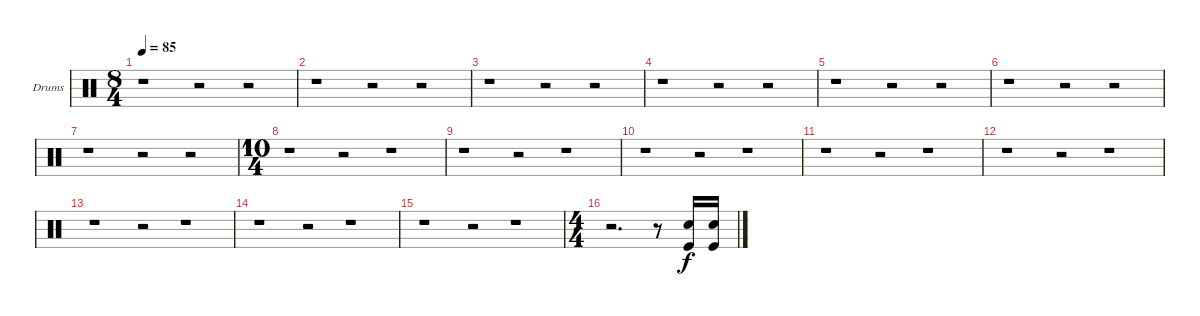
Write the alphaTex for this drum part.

\bracketExtendMode groupsimilarinstruments
\firstSystemTrackNameOrientation horizontal
\otherSystemsTrackNameOrientation horizontal
\track ("Drumkit" "Drums") {instrument percussion}
\staff {score}
\articulation defaults
\ts (8 4)
\tempo 85
\clef neutral
\ks c
r.1{dy f} r.2 r.2 |
r.1 r.2 r.2 |
r.1 r.2 r.2 |
r.1 r.2 r.2 |
r.1 r.2 r.2 |
r.1 r.2 r.2 |
r.1 r.2 r.2 |
\ts (10 4)
r.1 r.2 r.1 |
r.1 r.2 r.1 |
r.1 r.2 r.1 |
r.1 r.2 r.1 |
r.1 r.2 r.1 |
r.1 r.2 r.1 |
r.1 r.2 r.1 |
r.1 r.2 r.1 |
\ts (4 4)
r.2{d} r.8 ("Kick (hit)" "Snare (hit) 2").16 ("Kick (hit)" "Snare (hit) 2").16
